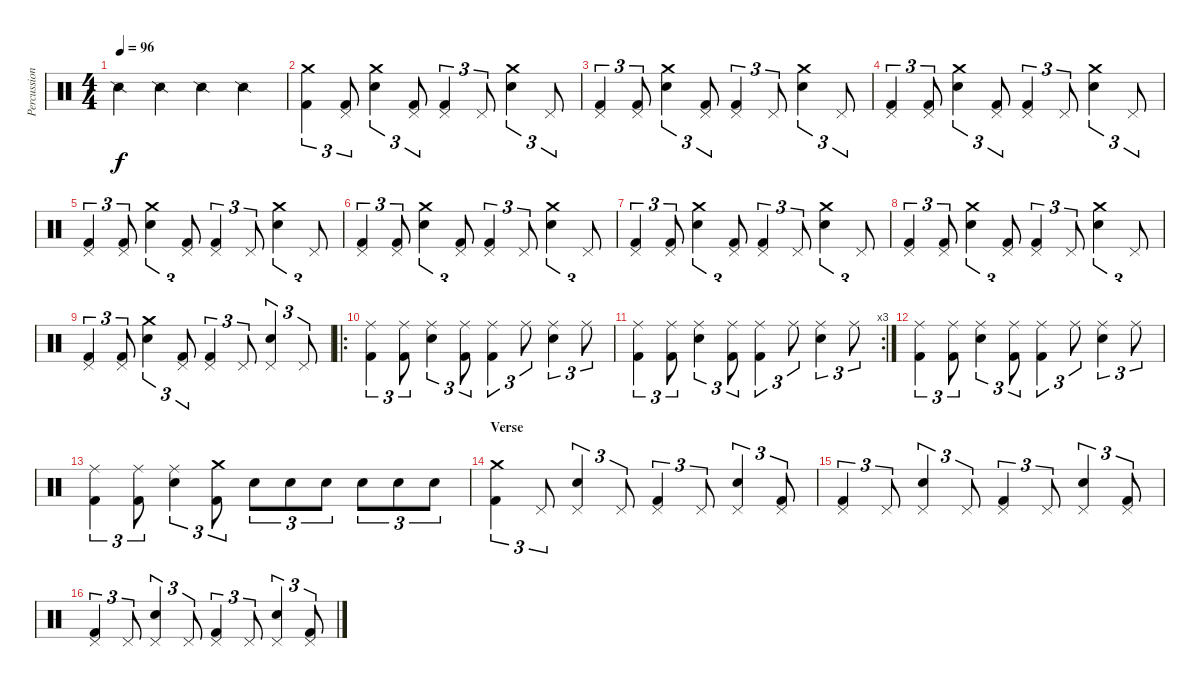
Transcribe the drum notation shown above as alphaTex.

\track ("Percussioni" "Percussion") {instrument percussion}
\staff {score}
\articulation defaults
\ts (4 4)
\tempo 96
\clef neutral
\ks c "Snare (side stick) 2".4{dy f} "Snare (side stick) 2".4 "Snare (side stick) 2".4 "Snare (side stick) 2".4
|
("Kick (hit) 2" "Crash medium (hit)").4{tu (3 2)} ("Kick (hit) 2" "Pedal Hi-Hat (hit)").8{tu (3 2)} ("Electric Snare (hit)" "Crash medium (hit)").4{tu (3 2)} ("Kick (hit) 2" "Pedal Hi-Hat (hit)").8{tu (3 2)} ("Kick (hit) 2" "Pedal Hi-Hat (hit)").4{tu (3 2)} "Pedal Hi-Hat (hit)".8{tu (3 2)} ("Electric Snare (hit)" "Crash medium (hit)").4{tu (3 2)} "Pedal Hi-Hat (hit)".8{tu (3 2)} |
("Kick (hit) 2" "Pedal Hi-Hat (hit)").4{tu (3 2)} ("Kick (hit) 2" "Pedal Hi-Hat (hit)").8{tu (3 2)} ("Electric Snare (hit)" "Crash medium (hit)").4{tu (3 2)} ("Kick (hit) 2" "Pedal Hi-Hat (hit)").8{tu (3 2)} ("Kick (hit) 2" "Pedal Hi-Hat (hit)").4{tu (3 2)} "Pedal Hi-Hat (hit)".8{tu (3 2)} ("Electric Snare (hit)" "Crash medium (hit)").4{tu (3 2)} "Pedal Hi-Hat (hit)".8{tu (3 2)} |
("Kick (hit) 2" "Pedal Hi-Hat (hit)").4{tu (3 2)} ("Kick (hit) 2" "Pedal Hi-Hat (hit)").8{tu (3 2)} ("Electric Snare (hit)" "Crash medium (hit)").4{tu (3 2)} ("Kick (hit) 2" "Pedal Hi-Hat (hit)").8{tu (3 2)} ("Kick (hit) 2" "Pedal Hi-Hat (hit)").4{tu (3 2)} "Pedal Hi-Hat (hit)".8{tu (3 2)} ("Electric Snare (hit)" "Crash medium (hit)").4{tu (3 2)} "Pedal Hi-Hat (hit)".8{tu (3 2)} |
("Kick (hit) 2" "Pedal Hi-Hat (hit)").4{tu (3 2)} ("Kick (hit) 2" "Pedal Hi-Hat (hit)").8{tu (3 2)} ("Electric Snare (hit)" "Crash medium (hit)").4{tu (3 2)} ("Kick (hit) 2" "Pedal Hi-Hat (hit)").8{tu (3 2)} ("Kick (hit) 2" "Pedal Hi-Hat (hit)").4{tu (3 2)} "Pedal Hi-Hat (hit)".8{tu (3 2)} ("Electric Snare (hit)" "Crash medium (hit)").4{tu (3 2)} "Pedal Hi-Hat (hit)".8{tu (3 2)} |
("Kick (hit) 2" "Pedal Hi-Hat (hit)").4{tu (3 2)} ("Kick (hit) 2" "Pedal Hi-Hat (hit)").8{tu (3 2)} ("Electric Snare (hit)" "Crash medium (hit)").4{tu (3 2)} ("Kick (hit) 2" "Pedal Hi-Hat (hit)").8{tu (3 2)} ("Kick (hit) 2" "Pedal Hi-Hat (hit)").4{tu (3 2)} "Pedal Hi-Hat (hit)".8{tu (3 2)} ("Electric Snare (hit)" "Crash medium (hit)").4{tu (3 2)} "Pedal Hi-Hat (hit)".8{tu (3 2)} |
("Kick (hit) 2" "Pedal Hi-Hat (hit)").4{tu (3 2)} ("Kick (hit) 2" "Pedal Hi-Hat (hit)").8{tu (3 2)} ("Electric Snare (hit)" "Crash medium (hit)").4{tu (3 2)} ("Kick (hit) 2" "Pedal Hi-Hat (hit)").8{tu (3 2)} ("Kick (hit) 2" "Pedal Hi-Hat (hit)").4{tu (3 2)} "Pedal Hi-Hat (hit)".8{tu (3 2)} ("Electric Snare (hit)" "Crash medium (hit)").4{tu (3 2)} "Pedal Hi-Hat (hit)".8{tu (3 2)} |
("Kick (hit) 2" "Pedal Hi-Hat (hit)").4{tu (3 2)} ("Kick (hit) 2" "Pedal Hi-Hat (hit)").8{tu (3 2)} ("Electric Snare (hit)" "Crash medium (hit)").4{tu (3 2)} ("Kick (hit) 2" "Pedal Hi-Hat (hit)").8{tu (3 2)} ("Kick (hit) 2" "Pedal Hi-Hat (hit)").4{tu (3 2)} "Pedal Hi-Hat (hit)".8{tu (3 2)} ("Electric Snare (hit)" "Crash medium (hit)").4{tu (3 2)} "Pedal Hi-Hat (hit)".8{tu (3 2)} |
("Kick (hit) 2" "Pedal Hi-Hat (hit)").4{tu (3 2)} ("Kick (hit) 2" "Pedal Hi-Hat (hit)").8{tu (3 2)} ("Electric Snare (hit)" "Crash medium (hit)").4{tu (3 2)} ("Kick (hit) 2" "Pedal Hi-Hat (hit)").8{tu (3 2)} ("Kick (hit) 2" "Pedal Hi-Hat (hit)").4{tu (3 2)} "Pedal Hi-Hat (hit)".8{tu (3 2)} ("Electric Snare (hit)" "Pedal Hi-Hat (hit)").4{tu (3 2)} "Pedal Hi-Hat (hit)".8{tu (3 2)} |
\ro
("Kick (hit) 2" "Ride (middle)").4{tu (3 2)} ("Kick (hit) 2" "Ride (middle)").8{tu (3 2)} ("Electric Snare (hit)" "Ride (middle)").4{tu (3 2)} ("Kick (hit) 2" "Ride (middle)").8{tu (3 2)} ("Kick (hit) 2" "Ride (middle)").4{tu (3 2)} "Ride (middle)".8{tu (3 2)} ("Electric Snare (hit)" "Ride (middle)").4{tu (3 2)} "Ride (middle)".8{tu (3 2)} |
\rc 3
("Kick (hit) 2" "Ride (middle)").4{tu (3 2)} ("Kick (hit) 2" "Ride (middle)").8{tu (3 2)} ("Electric Snare (hit)" "Ride (middle)").4{tu (3 2)} ("Kick (hit) 2" "Ride (middle)").8{tu (3 2)} ("Kick (hit) 2" "Ride (middle)").4{tu (3 2)} "Ride (middle)".8{tu (3 2)} ("Electric Snare (hit)" "Ride (middle)").4{tu (3 2)} "Ride (middle)".8{tu (3 2)} |
("Kick (hit) 2" "Ride (middle)").4{tu (3 2)} ("Kick (hit) 2" "Ride (middle)").8{tu (3 2)} ("Electric Snare (hit)" "Ride (middle)").4{tu (3 2)} ("Kick (hit) 2" "Ride (middle)").8{tu (3 2)} ("Kick (hit) 2" "Ride (middle)").4{tu (3 2)} "Ride (middle)".8{tu (3 2)} ("Electric Snare (hit)" "Ride (middle)").4{tu (3 2)} "Ride (middle)".8{tu (3 2)} |
("Kick (hit) 2" "Ride (middle)").4{tu (3 2)} ("Kick (hit) 2" "Ride (middle)").8{tu (3 2)} ("Electric Snare (hit)" "Ride (middle)").4{tu (3 2)} ("Kick (hit) 2" "Crash medium (hit)").8{tu (3 2)} "Electric Snare (hit)".8{tu (3 2)} "Electric Snare (hit)".8{tu (3 2)} "Electric Snare (hit)".8{tu (3 2)} "Electric Snare (hit)".8{tu (3 2)} "Electric Snare (hit)".8{tu (3 2)} "Electric Snare (hit)".8{tu (3 2)} |
\section ("" "Verse")
("Kick (hit) 2" "Crash medium (hit)").4{tu (3 2)} "Pedal Hi-Hat (hit)".8{tu (3 2)} ("Electric Snare (hit)" "Pedal Hi-Hat (hit)").4{tu (3 2)} "Pedal Hi-Hat (hit)".8{tu (3 2)} ("Kick (hit) 2" "Pedal Hi-Hat (hit)").4{tu (3 2)} "Pedal Hi-Hat (hit)".8{tu (3 2)} ("Electric Snare (hit)" "Pedal Hi-Hat (hit)").4{tu (3 2)} ("Kick (hit) 2" "Pedal Hi-Hat (hit)").8{tu (3 2)} |
("Kick (hit) 2" "Pedal Hi-Hat (hit)").4{tu (3 2)} "Pedal Hi-Hat (hit)".8{tu (3 2)} ("Electric Snare (hit)" "Pedal Hi-Hat (hit)").4{tu (3 2)} "Pedal Hi-Hat (hit)".8{tu (3 2)} ("Kick (hit) 2" "Pedal Hi-Hat (hit)").4{tu (3 2)} "Pedal Hi-Hat (hit)".8{tu (3 2)} ("Electric Snare (hit)" "Pedal Hi-Hat (hit)").4{tu (3 2)} ("Kick (hit) 2" "Pedal Hi-Hat (hit)").8{tu (3 2)} |
("Kick (hit) 2" "Pedal Hi-Hat (hit)").4{tu (3 2)} "Pedal Hi-Hat (hit)".8{tu (3 2)} ("Electric Snare (hit)" "Pedal Hi-Hat (hit)").4{tu (3 2)} "Pedal Hi-Hat (hit)".8{tu (3 2)} ("Kick (hit) 2" "Pedal Hi-Hat (hit)").4{tu (3 2)} "Pedal Hi-Hat (hit)".8{tu (3 2)} ("Electric Snare (hit)" "Pedal Hi-Hat (hit)").4{tu (3 2)} ("Kick (hit) 2" "Pedal Hi-Hat (hit)").8{tu (3 2)}
